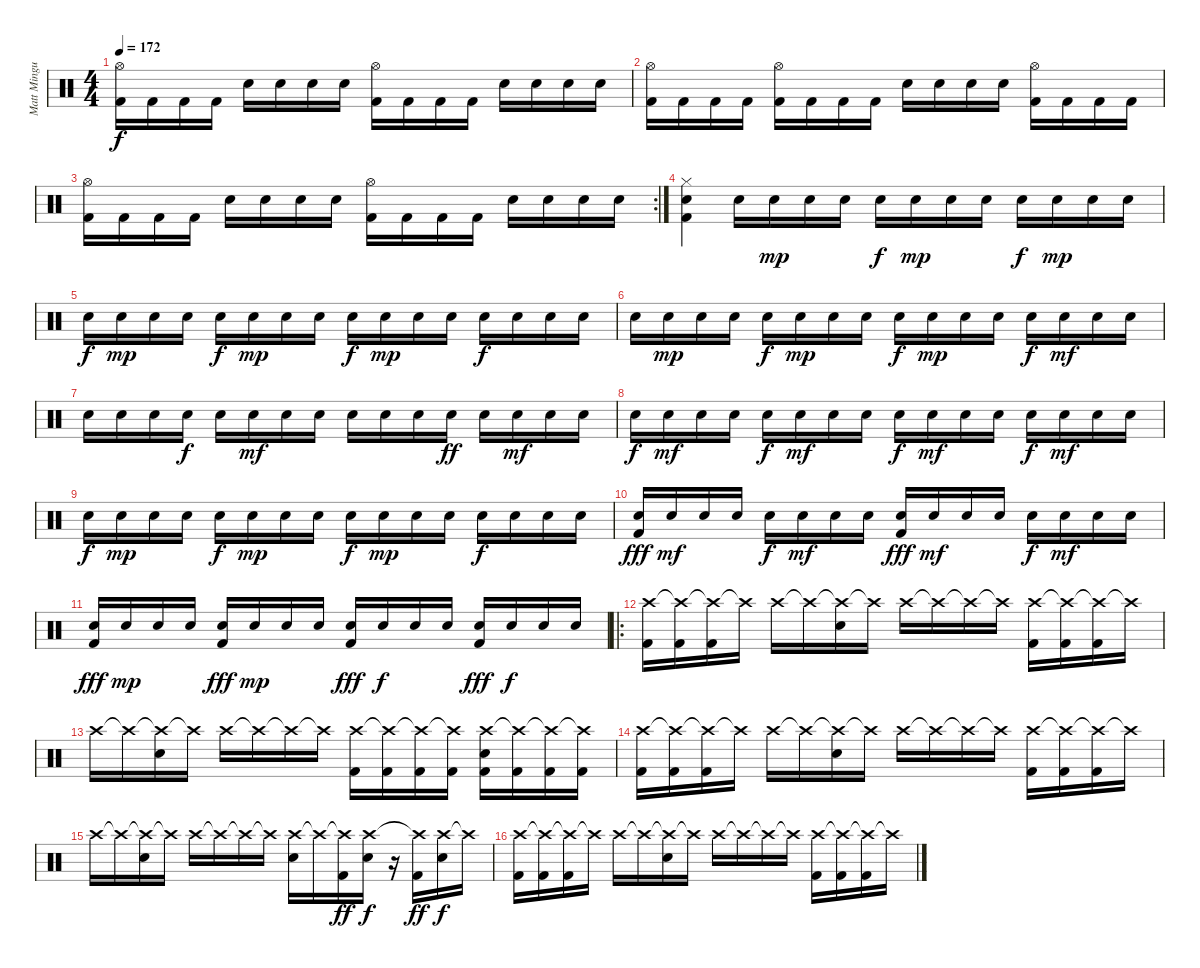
\track ("Matt Mingus" "Matt Mingu") {instrument percussion}
\staff {score}
\articulation defaults
\ts (4 4)
\tempo 172
\clef neutral
\ks c
("Hi-Hat (open)" "Kick (hit) 2").16{dy f} "Kick (hit) 2".16 "Kick (hit) 2".16 "Kick (hit) 2".16 "Electric Snare (hit)".16 "Electric Snare (hit)".16 "Electric Snare (hit)".16 "Electric Snare (hit)".16 ("Hi-Hat (open)" "Kick (hit) 2").16 "Kick (hit) 2".16 "Kick (hit) 2".16 "Kick (hit) 2".16 "Electric Snare (hit)".16 "Electric Snare (hit)".16 "Electric Snare (hit)".16 "Electric Snare (hit)".16 |
("Hi-Hat (open)" "Kick (hit) 2").16 "Kick (hit) 2".16 "Kick (hit) 2".16 "Kick (hit) 2".16 ("Hi-Hat (open)" "Kick (hit) 2").16 "Kick (hit) 2".16 "Kick (hit) 2".16 "Kick (hit) 2".16 "Electric Snare (hit)".16 "Electric Snare (hit)".16 "Electric Snare (hit)".16 "Electric Snare (hit)".16 ("Hi-Hat (open)" "Kick (hit) 2").16 "Kick (hit) 2".16 "Kick (hit) 2".16 "Kick (hit) 2".16 |
\rc 2
("Hi-Hat (open)" "Kick (hit) 2").16 "Kick (hit) 2".16 "Kick (hit) 2".16 "Kick (hit) 2".16 "Electric Snare (hit)".16 "Electric Snare (hit)".16 "Electric Snare (hit)".16 "Electric Snare (hit)".16 ("Hi-Hat (open)" "Kick (hit) 2").16 "Kick (hit) 2".16 "Kick (hit) 2".16 "Kick (hit) 2".16 "Electric Snare (hit)".16 "Electric Snare (hit)".16 "Electric Snare (hit)".16 "Electric Snare (hit)".16 |
("Hi-Hat (closed)" "Electric Snare (hit)" "Kick (hit) 2").4 "Electric Snare (hit)".16 "Electric Snare (hit)".16{dy mp} "Electric Snare (hit)".16 "Electric Snare (hit)".16 "Electric Snare (hit)".16{dy f} "Electric Snare (hit)".16{dy mp} "Electric Snare (hit)".16 "Electric Snare (hit)".16 "Electric Snare (hit)".16{dy f} "Electric Snare (hit)".16{dy mp} "Electric Snare (hit)".16 "Electric Snare (hit)".16 |
"Electric Snare (hit)".16{dy f} "Electric Snare (hit)".16{dy mp} "Electric Snare (hit)".16 "Electric Snare (hit)".16 "Electric Snare (hit)".16{dy f} "Electric Snare (hit)".16{dy mp} "Electric Snare (hit)".16 "Electric Snare (hit)".16 "Electric Snare (hit)".16{dy f} "Electric Snare (hit)".16{dy mp} "Electric Snare (hit)".16 "Electric Snare (hit)".16 "Electric Snare (hit)".16{dy f} "Electric Snare (hit)".16 "Electric Snare (hit)".16 "Electric Snare (hit)".16 |
"Electric Snare (hit)".16 "Electric Snare (hit)".16{dy mp} "Electric Snare (hit)".16 "Electric Snare (hit)".16 "Electric Snare (hit)".16{dy f} "Electric Snare (hit)".16{dy mp} "Electric Snare (hit)".16 "Electric Snare (hit)".16 "Electric Snare (hit)".16{dy f} "Electric Snare (hit)".16{dy mp} "Electric Snare (hit)".16 "Electric Snare (hit)".16 "Electric Snare (hit)".16{dy f} "Electric Snare (hit)".16{dy mf} "Electric Snare (hit)".16 "Electric Snare (hit)".16 |
"Electric Snare (hit)".16 "Electric Snare (hit)".16 "Electric Snare (hit)".16 "Electric Snare (hit)".16{dy f} "Electric Snare (hit)".16 "Electric Snare (hit)".16{dy mf} "Electric Snare (hit)".16 "Electric Snare (hit)".16 "Electric Snare (hit)".16 "Electric Snare (hit)".16 "Electric Snare (hit)".16 "Electric Snare (hit)".16{dy ff} "Electric Snare (hit)".16 "Electric Snare (hit)".16{dy mf} "Electric Snare (hit)".16 "Electric Snare (hit)".16 |
"Electric Snare (hit)".16{dy f} "Electric Snare (hit)".16{dy mf} "Electric Snare (hit)".16 "Electric Snare (hit)".16 "Electric Snare (hit)".16{dy f} "Electric Snare (hit)".16{dy mf} "Electric Snare (hit)".16 "Electric Snare (hit)".16 "Electric Snare (hit)".16{dy f} "Electric Snare (hit)".16{dy mf} "Electric Snare (hit)".16 "Electric Snare (hit)".16 "Electric Snare (hit)".16{dy f} "Electric Snare (hit)".16{dy mf} "Electric Snare (hit)".16 "Electric Snare (hit)".16 |
"Electric Snare (hit)".16{dy f} "Electric Snare (hit)".16{dy mp} "Electric Snare (hit)".16 "Electric Snare (hit)".16 "Electric Snare (hit)".16{dy f} "Electric Snare (hit)".16{dy mp} "Electric Snare (hit)".16 "Electric Snare (hit)".16 "Electric Snare (hit)".16{dy f} "Electric Snare (hit)".16{dy mp} "Electric Snare (hit)".16 "Electric Snare (hit)".16 "Electric Snare (hit)".16{dy f} "Electric Snare (hit)".16 "Electric Snare (hit)".16 "Electric Snare (hit)".16 |
("Electric Snare (hit)" "Kick (hit) 2").16{dy fff} "Electric Snare (hit)".16{dy mf} "Electric Snare (hit)".16 "Electric Snare (hit)".16 "Electric Snare (hit)".16{dy f} "Electric Snare (hit)".16{dy mf} "Electric Snare (hit)".16 "Electric Snare (hit)".16 ("Electric Snare (hit)" "Kick (hit) 2").16{dy fff} "Electric Snare (hit)".16{dy mf} "Electric Snare (hit)".16 "Electric Snare (hit)".16 "Electric Snare (hit)".16{dy f} "Electric Snare (hit)".16{dy mf} "Electric Snare (hit)".16 "Electric Snare (hit)".16 |
("Electric Snare (hit)" "Kick (hit) 2").16{dy fff} "Electric Snare (hit)".16{dy mp} "Electric Snare (hit)".16 "Electric Snare (hit)".16 ("Electric Snare (hit)" "Kick (hit) 2").16{dy fff} "Electric Snare (hit)".16{dy mp} "Electric Snare (hit)".16 "Electric Snare (hit)".16 ("Electric Snare (hit)" "Kick (hit) 2").16{dy fff} "Electric Snare (hit)".16{dy f} "Electric Snare (hit)".16 "Electric Snare (hit)".16 ("Electric Snare (hit)" "Kick (hit) 2").16{dy fff} "Electric Snare (hit)".16{dy f} "Electric Snare (hit)".16 "Electric Snare (hit)".16 |
\ro
("Crash high (hit)" "Kick (hit) 2").16 ("Crash high (hit)"{t} "Kick (hit) 2").16 ("Crash high (hit)"{t} "Kick (hit) 2").16 "Crash high (hit)"{t}.16 "Crash high (hit)".16 "Crash high (hit)"{t}.16 ("Crash high (hit)"{t} "Electric Snare (hit)").16 "Crash high (hit)"{t}.16 "Crash high (hit)".16 "Crash high (hit)"{t}.16 "Crash high (hit)"{t}.16 "Crash high (hit)"{t}.16 ("Crash high (hit)" "Kick (hit) 2").16 ("Crash high (hit)"{t} "Kick (hit) 2").16 ("Crash high (hit)"{t} "Kick (hit) 2").16 "Crash high (hit)"{t}.16 |
"Crash high (hit)".16 "Crash high (hit)"{t}.16 ("Crash high (hit)"{t} "Electric Snare (hit)").16 "Crash high (hit)"{t}.16 "Crash high (hit)".16 "Crash high (hit)"{t}.16 "Crash high (hit)"{t}.16 "Crash high (hit)"{t}.16 ("Crash high (hit)" "Kick (hit) 2").16 ("Crash high (hit)"{t} "Kick (hit) 2").16 ("Crash high (hit)"{t} "Kick (hit) 2").16 ("Crash high (hit)"{t} "Kick (hit) 2").16 ("Crash high (hit)" "Electric Snare (hit)" "Kick (hit) 2").16 ("Crash high (hit)"{t} "Kick (hit) 2").16 ("Crash high (hit)"{t} "Kick (hit) 2").16 ("Crash high (hit)"{t} "Kick (hit) 2").16 |
("Crash high (hit)" "Kick (hit) 2").16 ("Crash high (hit)"{t} "Kick (hit) 2").16 ("Crash high (hit)"{t} "Kick (hit) 2").16 "Crash high (hit)"{t}.16 "Crash high (hit)".16 "Crash high (hit)"{t}.16 ("Crash high (hit)"{t} "Electric Snare (hit)").16 "Crash high (hit)"{t}.16 "Crash high (hit)".16 "Crash high (hit)"{t}.16 "Crash high (hit)"{t}.16 "Crash high (hit)"{t}.16 ("Crash high (hit)" "Kick (hit) 2").16 ("Crash high (hit)"{t} "Kick (hit) 2").16 ("Crash high (hit)"{t} "Kick (hit) 2").16 "Crash high (hit)"{t}.16 |
"Crash high (hit)".16 "Crash high (hit)"{t}.16 ("Crash high (hit)"{t} "Electric Snare (hit)").16 "Crash high (hit)"{t}.16 "Crash high (hit)".16 "Crash high (hit)"{t}.16 "Crash high (hit)"{t}.16 "Crash high (hit)"{t}.16 ("Crash high (hit)" "Electric Snare (hit)").16 "Crash high (hit)"{t}.16 ("Crash high (hit)"{t} "Kick (hit) 2").16{dy ff} ("Crash high (hit)" "Electric Snare (hit)").16{dy f} r.16 ("Crash high (hit)"{t} "Kick (hit) 2").16{dy ff} ("Crash high (hit)" "Electric Snare (hit)").16{dy f} "Crash high (hit)"{t}.16 |
("Crash high (hit)" "Kick (hit) 2").16 ("Crash high (hit)"{t} "Kick (hit) 2").16 ("Crash high (hit)"{t} "Kick (hit) 2").16 "Crash high (hit)"{t}.16 "Crash high (hit)".16 "Crash high (hit)"{t}.16 ("Crash high (hit)"{t} "Electric Snare (hit)").16 "Crash high (hit)"{t}.16 "Crash high (hit)".16 "Crash high (hit)"{t}.16 "Crash high (hit)"{t}.16 "Crash high (hit)"{t}.16 ("Crash high (hit)" "Kick (hit) 2").16 ("Crash high (hit)"{t} "Kick (hit) 2").16 ("Crash high (hit)"{t} "Kick (hit) 2").16 "Crash high (hit)"{t}.16
